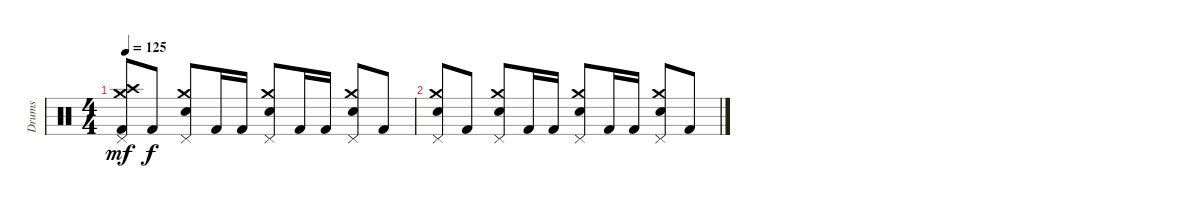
\track ("Drums" "Drums") {instrument percussion}
\staff {score}
\articulation defaults
\ts (4 4)
\tempo 125
\clef neutral
\ks c
("Pedal Hi-Hat (hit)" "Crash high (hit)" "Crash medium (hit)" "Kick (hit) 2").8{dy mf} "Kick (hit) 2".8{dy f} ("Pedal Hi-Hat (hit)" "Crash medium (hit)" "Electric Snare (hit)").8 "Kick (hit) 2".16 "Kick (hit) 2".16 ("Pedal Hi-Hat (hit)" "Crash medium (hit)" "Electric Snare (hit)").8 "Kick (hit) 2".16 "Kick (hit) 2".16 ("Pedal Hi-Hat (hit)" "Crash medium (hit)" "Electric Snare (hit)").8 "Kick (hit) 2".8 |
("Pedal Hi-Hat (hit)" "Crash medium (hit)" "Electric Snare (hit)").8 "Kick (hit) 2".8 ("Pedal Hi-Hat (hit)" "Crash medium (hit)" "Electric Snare (hit)").8 "Kick (hit) 2".16 "Kick (hit) 2".16 ("Pedal Hi-Hat (hit)" "Crash medium (hit)" "Electric Snare (hit)").8 "Kick (hit) 2".16 "Kick (hit) 2".16 ("Pedal Hi-Hat (hit)" "Crash medium (hit)" "Electric Snare (hit)").8 "Kick (hit) 2".8
